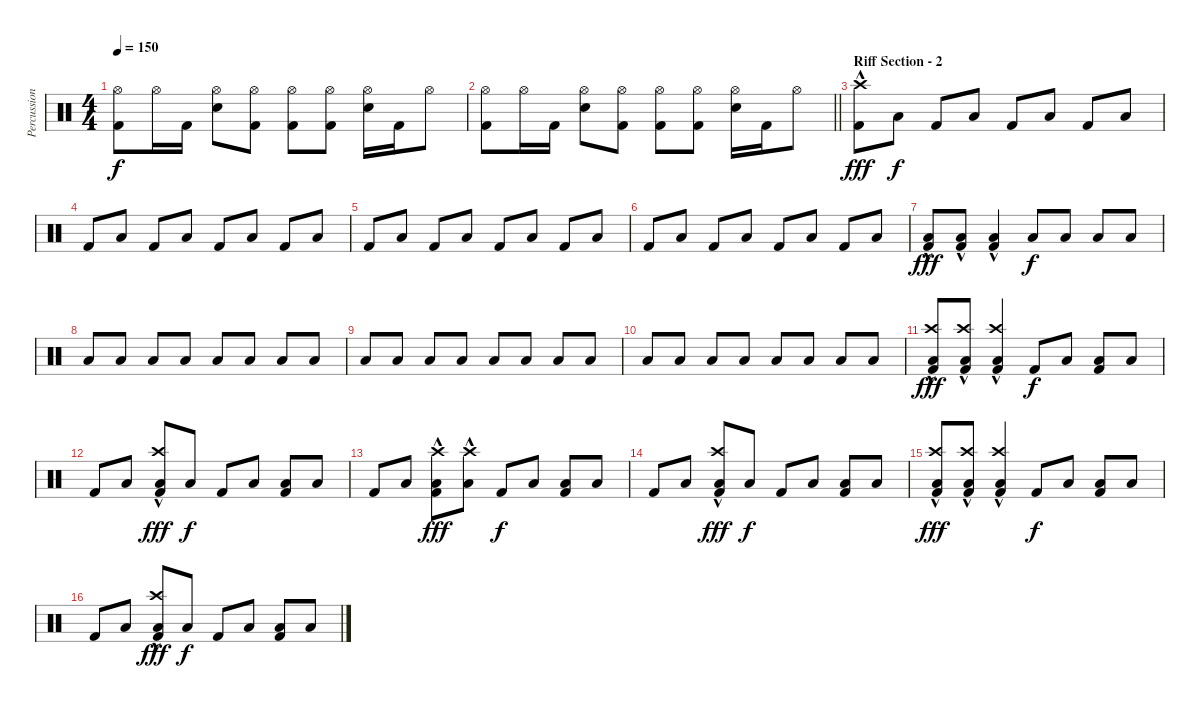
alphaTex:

\track ("Percussion" "Percussion") {instrument percussion}
\staff {score}
\articulation defaults
\ts (4 4)
\tempo 150
\clef neutral
\ks c
("Hi-Hat (open)" "Kick (hit) 2").8{dy f} "Hi-Hat (open)".16 "Kick (hit) 2".16 ("Hi-Hat (open)" "Snare (hit) 2").8 ("Hi-Hat (open)" "Kick (hit) 2").8 ("Hi-Hat (open)" "Kick (hit) 2").8 ("Hi-Hat (open)" "Kick (hit) 2").8 ("Hi-Hat (open)" "Snare (hit) 2").16 "Kick (hit) 2".16 "Hi-Hat (open)".8 |
\barLineRight lightlight
("Hi-Hat (open)" "Kick (hit) 2").8 "Hi-Hat (open)".16 "Kick (hit) 2".16 ("Hi-Hat (open)" "Snare (hit) 2").8 ("Hi-Hat (open)" "Kick (hit) 2").8 ("Hi-Hat (open)" "Kick (hit) 2").8 ("Hi-Hat (open)" "Kick (hit) 2").8 ("Hi-Hat (open)" "Snare (hit) 2").16 "Kick (hit) 2".16 "Hi-Hat (open)".8 |
\section ("" "Riff Section - 2")
("Crash high (hit)"{hac} "Kick (hit) 2").8{dy fff} "Low Floor Tom (hit)".8{dy f} "Kick (hit) 2".8 "Low Floor Tom (hit)".8 "Kick (hit) 2".8 "Low Floor Tom (hit)".8 "Kick (hit) 2".8 "Low Floor Tom (hit)".8 |
"Kick (hit) 2".8 "Low Floor Tom (hit)".8 "Kick (hit) 2".8 "Low Floor Tom (hit)".8 "Kick (hit) 2".8 "Low Floor Tom (hit)".8 "Kick (hit) 2".8 "Low Floor Tom (hit)".8 |
"Kick (hit) 2".8 "Low Floor Tom (hit)".8 "Kick (hit) 2".8 "Low Floor Tom (hit)".8 "Kick (hit) 2".8 "Low Floor Tom (hit)".8 "Kick (hit) 2".8 "Low Floor Tom (hit)".8 |
"Kick (hit) 2".8 "Low Floor Tom (hit)".8 "Kick (hit) 2".8 "Low Floor Tom (hit)".8 "Kick (hit) 2".8 "Low Floor Tom (hit)".8 "Kick (hit) 2".8 "Low Floor Tom (hit)".8 |
("Low Floor Tom (hit)"{hac} "Kick (hit) 2"{hac}).8{dy fff} ("Low Floor Tom (hit)"{hac} "Kick (hit) 2"{hac}).8 ("Low Floor Tom (hit)"{hac} "Kick (hit) 2"{hac}).4 "Low Tom (hit)".8{dy f} "Low Floor Tom (hit)".8 "Low Tom (hit)".8 "Low Floor Tom (hit)".8 |
"Low Tom (hit)".8 "Low Floor Tom (hit)".8 "Low Tom (hit)".8 "Low Floor Tom (hit)".8 "Low Tom (hit)".8 "Low Floor Tom (hit)".8 "Low Tom (hit)".8 "Low Floor Tom (hit)".8 |
"Low Tom (hit)".8 "Low Floor Tom (hit)".8 "Low Tom (hit)".8 "Low Floor Tom (hit)".8 "Low Tom (hit)".8 "Low Floor Tom (hit)".8 "Low Tom (hit)".8 "Low Floor Tom (hit)".8 |
"Low Tom (hit)".8 "Low Floor Tom (hit)".8 "Low Tom (hit)".8 "Low Floor Tom (hit)".8 "Low Tom (hit)".8 "Low Floor Tom (hit)".8 "Low Tom (hit)".8 "Low Floor Tom (hit)".8 |
("Crash high (hit)"{hac} "Low Floor Tom (hit)"{hac} "Kick (hit) 2"{hac}).8{dy fff} ("Crash high (hit)"{hac} "Low Floor Tom (hit)"{hac} "Kick (hit) 2"{hac}).8 ("Crash high (hit)"{hac} "Low Floor Tom (hit)"{hac} "Kick (hit) 2"{hac}).4 "Kick (hit) 2".8{dy f} "Low Floor Tom (hit)".8 ("Low Tom (hit)" "Kick (hit) 2").8 "Low Floor Tom (hit)".8 |
"Kick (hit) 2".8 "Low Floor Tom (hit)".8 ("Crash high (hit)"{hac} "Low Tom (hit)" "Kick (hit) 2").8{dy fff} "Low Floor Tom (hit)".8{dy f} "Kick (hit) 2".8 "Low Floor Tom (hit)".8 ("Low Tom (hit)" "Kick (hit) 2").8 "Low Floor Tom (hit)".8 |
"Kick (hit) 2".8 "Low Floor Tom (hit)".8 ("Crash high (hit)"{hac} "Low Tom (hit)" "Kick (hit) 2").8{dy fff} ("Crash high (hit)"{hac} "Low Floor Tom (hit)").8 "Kick (hit) 2".8{dy f} "Low Floor Tom (hit)".8 ("Low Tom (hit)" "Kick (hit) 2").8 "Low Floor Tom (hit)".8 |
"Kick (hit) 2".8 "Low Floor Tom (hit)".8 ("Crash high (hit)"{hac} "Low Tom (hit)" "Kick (hit) 2").8{dy fff} "Low Floor Tom (hit)".8{dy f} "Kick (hit) 2".8 "Low Floor Tom (hit)".8 ("Low Tom (hit)" "Kick (hit) 2").8 "Low Floor Tom (hit)".8 |
("Crash high (hit)"{hac} "Low Floor Tom (hit)"{hac} "Kick (hit) 2"{hac}).8{dy fff} ("Crash high (hit)"{hac} "Low Floor Tom (hit)"{hac} "Kick (hit) 2"{hac}).8 ("Crash high (hit)"{hac} "Low Floor Tom (hit)"{hac} "Kick (hit) 2"{hac}).4 "Kick (hit) 2".8{dy f} "Low Floor Tom (hit)".8 ("Low Tom (hit)" "Kick (hit) 2").8 "Low Floor Tom (hit)".8 |
"Kick (hit) 2".8 "Low Floor Tom (hit)".8 ("Crash high (hit)"{hac} "Low Tom (hit)" "Kick (hit) 2").8{dy fff} "Low Floor Tom (hit)".8{dy f} "Kick (hit) 2".8 "Low Floor Tom (hit)".8 ("Low Tom (hit)" "Kick (hit) 2").8 "Low Floor Tom (hit)".8
